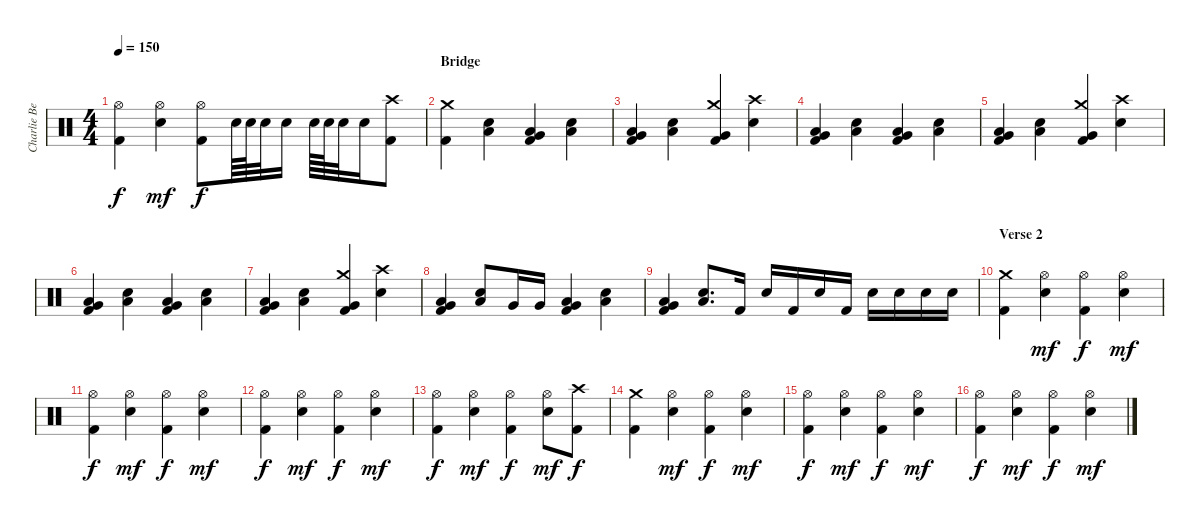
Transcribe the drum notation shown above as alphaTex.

\track ("Charlie Benante" "Charlie Be") {instrument percussion}
\staff {score}
\articulation defaults
\ts (4 4)
\tempo 150
\clef neutral
\ks c
("Kick (hit) 2" "Hi-Hat (open)").4{dy f} ("Hi-Hat (open)" "Snare (hit) 2").4{dy mf} ("Kick (hit) 2" "Hi-Hat (open)").8{dy f} "Snare (hit) 2".64 "Snare (hit) 2".64 "Snare (hit)".32 "Snare (hit)".16 "Snare (hit) 2".64 "Snare (hit) 2".64 "Snare (hit)".32 "Snare (hit)".16 ("Kick (hit) 2" "Crash high (hit)").8 |
\section ("" "Bridge")
("Kick (hit) 2" "Crash medium (hit)").4 ("Snare (hit) 2" "Low Tom (hit)").4 ("Kick (hit) 2" "Low Tom (hit)" "Very Low Tom (hit)").4 ("Snare (hit) 2" "Low Tom (hit)").4 |
("Kick (hit) 2" "Low Tom (hit)" "Very Low Tom (hit)").4 ("Snare (hit) 2" "Low Tom (hit)").4 ("Kick (hit) 2" "Crash medium (hit)" "Very Low Tom (hit)").4 ("Crash high (hit)" "Snare (hit) 2").4 |
("Kick (hit) 2" "Low Tom (hit)" "Very Low Tom (hit)").4 ("Snare (hit) 2" "Low Tom (hit)").4 ("Kick (hit) 2" "Low Tom (hit)" "Very Low Tom (hit)").4 ("Snare (hit) 2" "Low Tom (hit)").4 |
("Kick (hit) 2" "Low Tom (hit)" "Very Low Tom (hit)").4 ("Snare (hit) 2" "Low Tom (hit)").4 ("Kick (hit) 2" "Crash medium (hit)" "Very Low Tom (hit)").4 ("Crash high (hit)" "Snare (hit) 2").4 |
("Kick (hit) 2" "Low Tom (hit)" "Very Low Tom (hit)").4 ("Snare (hit) 2" "Low Tom (hit)").4 ("Kick (hit) 2" "Low Tom (hit)" "Very Low Tom (hit)").4 ("Snare (hit) 2" "Low Tom (hit)").4 |
("Kick (hit) 2" "Low Tom (hit)" "Very Low Tom (hit)").4 ("Snare (hit) 2" "Low Tom (hit)").4 ("Kick (hit) 2" "Crash medium (hit)" "Very Low Tom (hit)").4 ("Crash high (hit)" "Snare (hit) 2").4 |
("Kick (hit) 2" "Low Tom (hit)" "Very Low Tom (hit)").4 ("Snare (hit) 2" "Low Tom (hit)").8 "Very Low Tom (hit)".16 "Very Low Tom (hit)".16 ("Kick (hit) 2" "Low Tom (hit)" "Very Low Tom (hit)").4 ("Snare (hit) 2" "Low Tom (hit)").4 |
("Kick (hit) 2" "Low Tom (hit)" "Very Low Tom (hit)").4 ("Snare (hit) 2" "Low Tom (hit)").8{d} "Kick (hit) 2".16 "Snare (hit) 2".16 "Kick (hit) 2".16 "Snare (hit) 2".16 "Kick (hit) 2".16 "Snare (hit) 2".16 "Snare (hit) 2".16 "Snare (hit) 2".16 "Snare (hit) 2".16 |
\section ("" "Verse 2")
("Kick (hit) 2" "Crash medium (hit)").4 ("Hi-Hat (open)" "Snare (hit) 2").4{dy mf} ("Kick (hit) 2" "Hi-Hat (open)").4{dy f} ("Hi-Hat (open)" "Snare (hit) 2").4{dy mf} |
("Kick (hit) 2" "Hi-Hat (open)").4{dy f} ("Hi-Hat (open)" "Snare (hit) 2").4{dy mf} ("Kick (hit) 2" "Hi-Hat (open)").4{dy f} ("Hi-Hat (open)" "Snare (hit) 2").4{dy mf} |
("Kick (hit) 2" "Hi-Hat (open)").4{dy f} ("Hi-Hat (open)" "Snare (hit) 2").4{dy mf} ("Kick (hit) 2" "Hi-Hat (open)").4{dy f} ("Hi-Hat (open)" "Snare (hit) 2").4{dy mf} |
("Kick (hit) 2" "Hi-Hat (open)").4{dy f} ("Hi-Hat (open)" "Snare (hit) 2").4{dy mf} ("Kick (hit) 2" "Hi-Hat (open)").4{dy f} ("Hi-Hat (open)" "Snare (hit) 2").8{dy mf} ("Kick (hit) 2" "Crash high (hit)").8{dy f} |
("Kick (hit) 2" "Crash medium (hit)").4 ("Hi-Hat (open)" "Snare (hit) 2").4{dy mf} ("Kick (hit) 2" "Hi-Hat (open)").4{dy f} ("Hi-Hat (open)" "Snare (hit) 2").4{dy mf} |
("Kick (hit) 2" "Hi-Hat (open)").4{dy f} ("Hi-Hat (open)" "Snare (hit) 2").4{dy mf} ("Kick (hit) 2" "Hi-Hat (open)").4{dy f} ("Hi-Hat (open)" "Snare (hit) 2").4{dy mf} |
("Kick (hit) 2" "Hi-Hat (open)").4{dy f} ("Hi-Hat (open)" "Snare (hit) 2").4{dy mf} ("Kick (hit) 2" "Hi-Hat (open)").4{dy f} ("Hi-Hat (open)" "Snare (hit) 2").4{dy mf}
